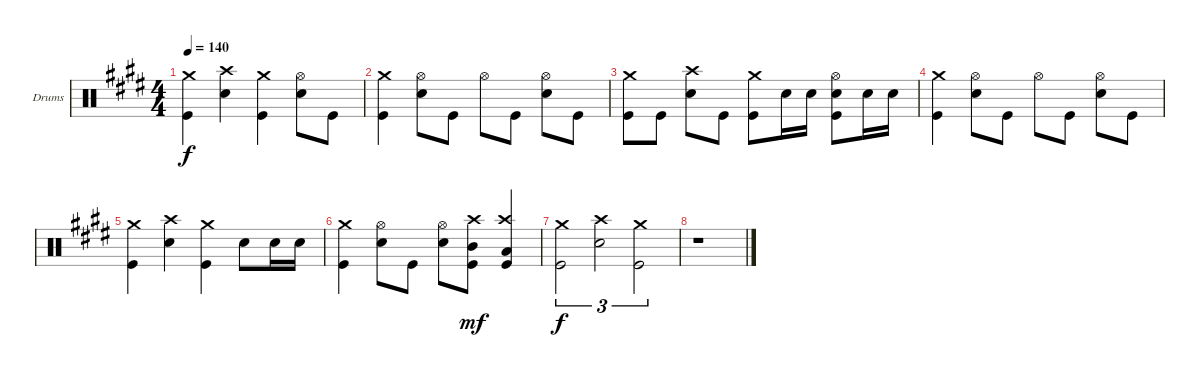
\bracketExtendMode groupsimilarinstruments
\firstSystemTrackNameOrientation horizontal
\otherSystemsTrackNameOrientation horizontal
\track ("Drumkit" "Drums") {instrument percussion}
\staff {score}
\articulation defaults
\ts (4 4)
\tempo 140
\clef neutral
\ks e
("Crash medium (hit)" "Kick (hit)").4{dy f} ("Crash high (hit)" "Snare (hit) 2").4 ("Crash medium (hit)" "Kick (hit)").4 ("Hi-Hat (open)" "Snare (hit) 2").8 "Kick (hit)".8 |
("Crash medium (hit)" "Kick (hit)").4 ("Hi-Hat (open)" "Snare (hit) 2").8 "Kick (hit)".8 "Hi-Hat (open)".8 "Kick (hit)".8 ("Hi-Hat (open)" "Snare (hit) 2").8 "Kick (hit)".8 |
("Crash medium (hit)" "Kick (hit)").8 "Kick (hit)".8 ("Crash high (hit)" "Snare (hit) 2").8 "Kick (hit)".8 ("Crash medium (hit)" "Kick (hit)").8 "Snare (hit) 2".16 "Snare (hit) 2".16 ("Hi-Hat (open)" "Snare (hit) 2" "Kick (hit)").8 "Snare (hit) 2".16 "Snare (hit) 2".16 |
("Crash medium (hit)" "Kick (hit)").4 ("Hi-Hat (open)" "Snare (hit) 2").8 "Kick (hit)".8 "Hi-Hat (open)".8 "Kick (hit)".8 ("Hi-Hat (open)" "Snare (hit) 2").8 "Kick (hit)".8 |
("Crash medium (hit)" "Kick (hit)").4 ("Crash high (hit)" "Snare (hit) 2").4 ("Crash medium (hit)" "Kick (hit)").4 "Snare (hit) 2".8 "Snare (hit) 2".16 "Snare (hit) 2".16 |
("Crash medium (hit)" "Kick (hit)").4 ("Hi-Hat (open)" "Snare (hit) 2").8 "Kick (hit)".8 ("Hi-Hat (open)" "Snare (hit) 2").8 ("Crash high (hit)" "Mid Tom (hit)" "Kick (hit)").8{dy mf} ("Crash high (hit)" "Low Tom (hit)" "Kick (hit)").4 |
\tempo (165 hide)
("Crash medium (hit)" "Kick (hit)").2{tu (3 2) dy f} ("Crash high (hit)" "Snare (hit) 2").2{tu (3 2)} ("Crash medium (hit)" "Kick (hit)").2{tu (3 2)} |
r.1
